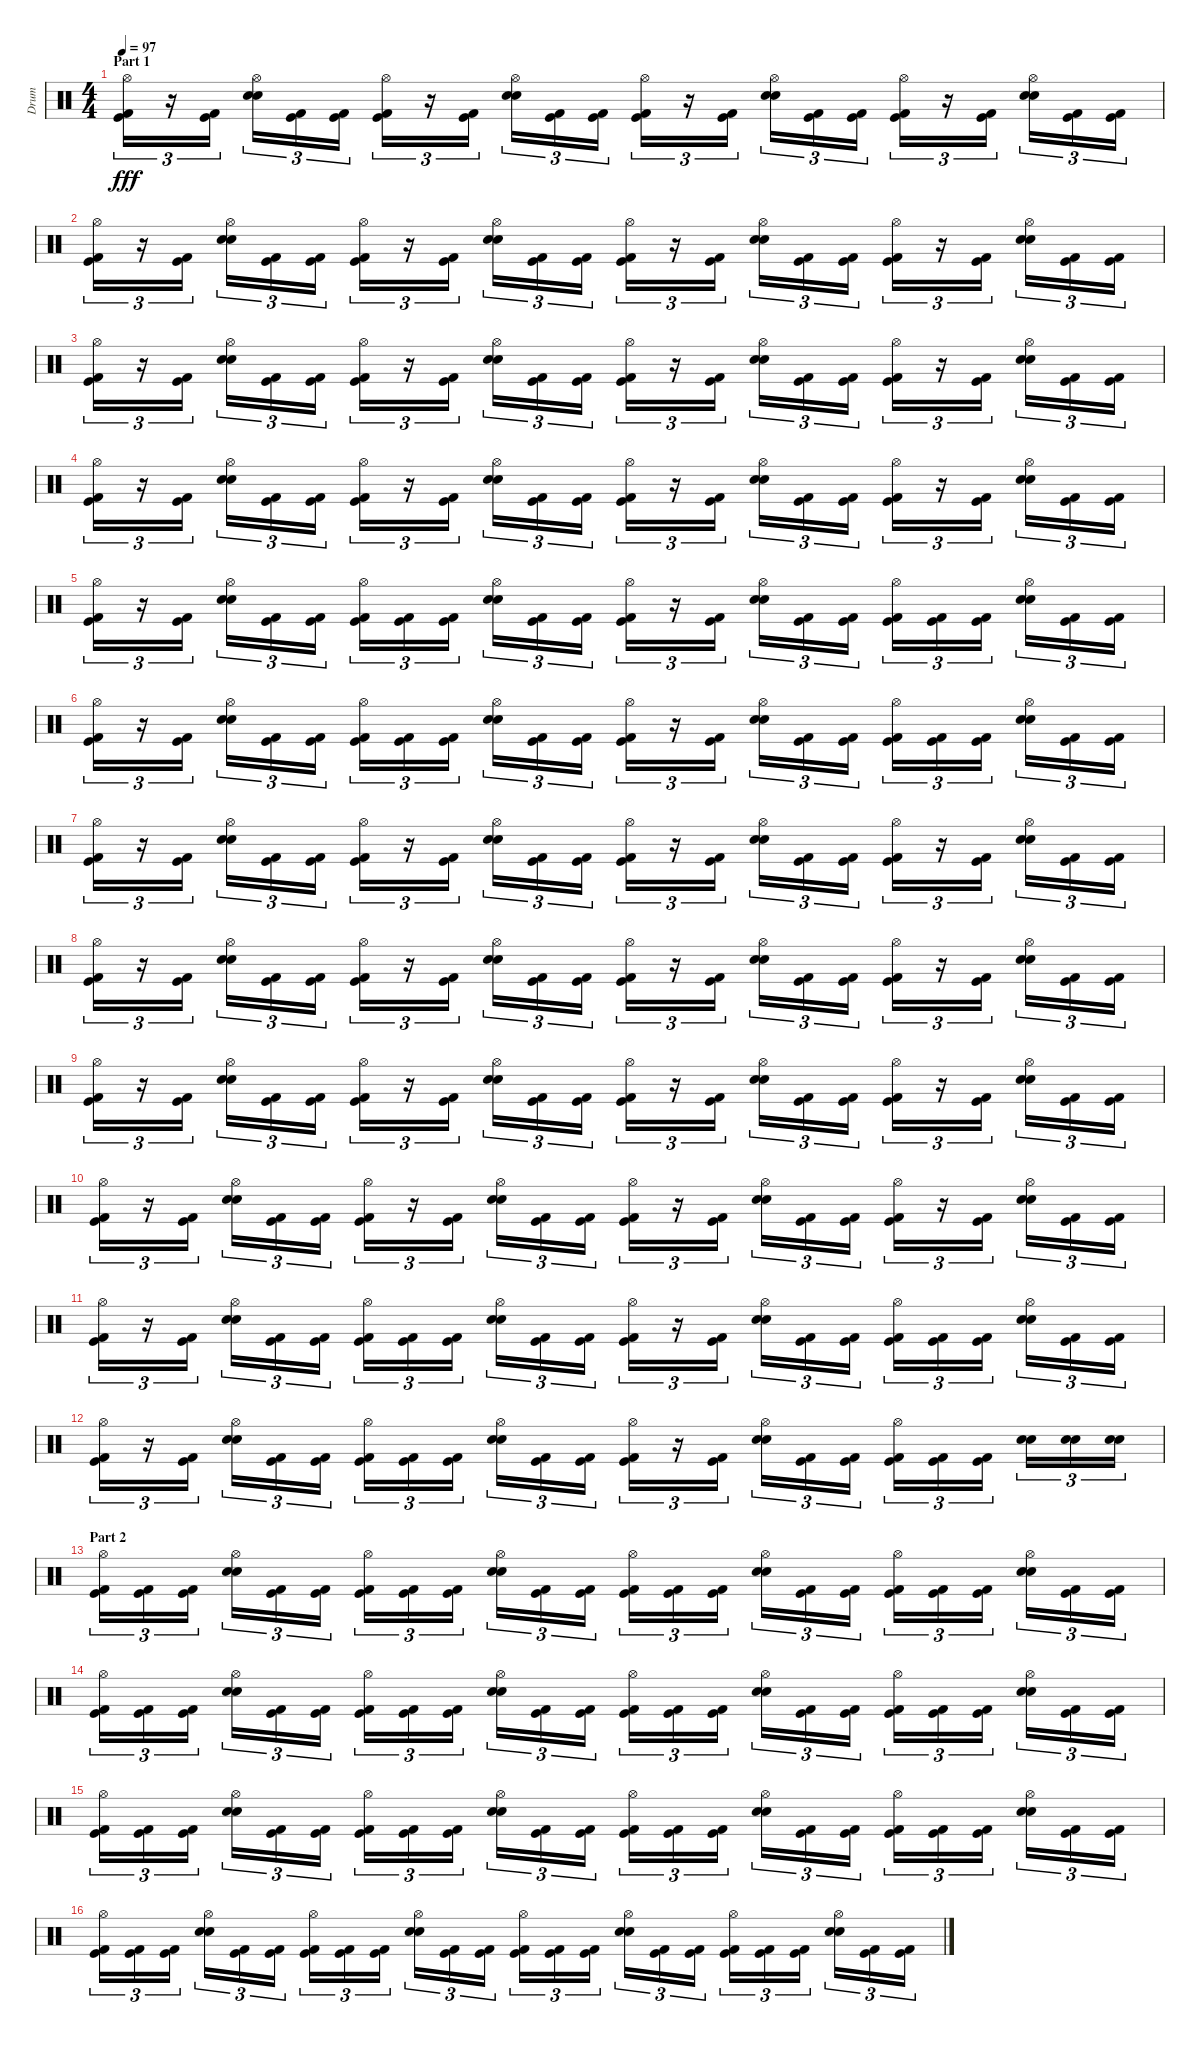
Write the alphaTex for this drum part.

\track ("Drum" "Drum") {instrument percussion}
\staff {score}
\articulation defaults
\ts (4 4)
\section ("" "Part 1")
\tempo 97
\clef neutral
\ks c
("Hi-Hat (open)" "Kick (hit)" "Kick (hit) 2").16{tu (3 2) dy fff} r.16{tu (3 2)} ("Kick (hit)" "Kick (hit) 2").16{tu (3 2)} ("Hi-Hat (open)" "Electric Snare (hit)" "Snare (hit) 2").16{tu (3 2)} ("Kick (hit)" "Kick (hit) 2").16{tu (3 2)} ("Kick (hit)" "Kick (hit) 2").16{tu (3 2)} ("Hi-Hat (open)" "Kick (hit)" "Kick (hit) 2").16{tu (3 2)} r.16{tu (3 2)} ("Kick (hit)" "Kick (hit) 2").16{tu (3 2)} ("Hi-Hat (open)" "Electric Snare (hit)" "Snare (hit) 2").16{tu (3 2)} ("Kick (hit)" "Kick (hit) 2").16{tu (3 2)} ("Kick (hit)" "Kick (hit) 2").16{tu (3 2)} ("Hi-Hat (open)" "Kick (hit)" "Kick (hit) 2").16{tu (3 2)} r.16{tu (3 2)} ("Kick (hit)" "Kick (hit) 2").16{tu (3 2)} ("Hi-Hat (open)" "Electric Snare (hit)" "Snare (hit) 2").16{tu (3 2)} ("Kick (hit)" "Kick (hit) 2").16{tu (3 2)} ("Kick (hit)" "Kick (hit) 2").16{tu (3 2)} ("Hi-Hat (open)" "Kick (hit)" "Kick (hit) 2").16{tu (3 2)} r.16{tu (3 2)} ("Kick (hit)" "Kick (hit) 2").16{tu (3 2)} ("Hi-Hat (open)" "Electric Snare (hit)" "Snare (hit) 2").16{tu (3 2)} ("Kick (hit)" "Kick (hit) 2").16{tu (3 2)} ("Kick (hit)" "Kick (hit) 2").16{tu (3 2)} |
("Hi-Hat (open)" "Kick (hit)" "Kick (hit) 2").16{tu (3 2)} r.16{tu (3 2)} ("Kick (hit)" "Kick (hit) 2").16{tu (3 2)} ("Hi-Hat (open)" "Electric Snare (hit)" "Snare (hit) 2").16{tu (3 2)} ("Kick (hit)" "Kick (hit) 2").16{tu (3 2)} ("Kick (hit)" "Kick (hit) 2").16{tu (3 2)} ("Hi-Hat (open)" "Kick (hit)" "Kick (hit) 2").16{tu (3 2)} r.16{tu (3 2)} ("Kick (hit)" "Kick (hit) 2").16{tu (3 2)} ("Hi-Hat (open)" "Electric Snare (hit)" "Snare (hit) 2").16{tu (3 2)} ("Kick (hit)" "Kick (hit) 2").16{tu (3 2)} ("Kick (hit)" "Kick (hit) 2").16{tu (3 2)} ("Hi-Hat (open)" "Kick (hit)" "Kick (hit) 2").16{tu (3 2)} r.16{tu (3 2)} ("Kick (hit)" "Kick (hit) 2").16{tu (3 2)} ("Hi-Hat (open)" "Electric Snare (hit)" "Snare (hit) 2").16{tu (3 2)} ("Kick (hit)" "Kick (hit) 2").16{tu (3 2)} ("Kick (hit)" "Kick (hit) 2").16{tu (3 2)} ("Hi-Hat (open)" "Kick (hit)" "Kick (hit) 2").16{tu (3 2)} r.16{tu (3 2)} ("Kick (hit)" "Kick (hit) 2").16{tu (3 2)} ("Hi-Hat (open)" "Electric Snare (hit)" "Snare (hit) 2").16{tu (3 2)} ("Kick (hit)" "Kick (hit) 2").16{tu (3 2)} ("Kick (hit)" "Kick (hit) 2").16{tu (3 2)} |
("Hi-Hat (open)" "Kick (hit)" "Kick (hit) 2").16{tu (3 2)} r.16{tu (3 2)} ("Kick (hit)" "Kick (hit) 2").16{tu (3 2)} ("Hi-Hat (open)" "Electric Snare (hit)" "Snare (hit) 2").16{tu (3 2)} ("Kick (hit)" "Kick (hit) 2").16{tu (3 2)} ("Kick (hit)" "Kick (hit) 2").16{tu (3 2)} ("Hi-Hat (open)" "Kick (hit)" "Kick (hit) 2").16{tu (3 2)} r.16{tu (3 2)} ("Kick (hit)" "Kick (hit) 2").16{tu (3 2)} ("Hi-Hat (open)" "Electric Snare (hit)" "Snare (hit) 2").16{tu (3 2)} ("Kick (hit)" "Kick (hit) 2").16{tu (3 2)} ("Kick (hit)" "Kick (hit) 2").16{tu (3 2)} ("Hi-Hat (open)" "Kick (hit)" "Kick (hit) 2").16{tu (3 2)} r.16{tu (3 2)} ("Kick (hit)" "Kick (hit) 2").16{tu (3 2)} ("Hi-Hat (open)" "Electric Snare (hit)" "Snare (hit) 2").16{tu (3 2)} ("Kick (hit)" "Kick (hit) 2").16{tu (3 2)} ("Kick (hit)" "Kick (hit) 2").16{tu (3 2)} ("Hi-Hat (open)" "Kick (hit)" "Kick (hit) 2").16{tu (3 2)} r.16{tu (3 2)} ("Kick (hit)" "Kick (hit) 2").16{tu (3 2)} ("Hi-Hat (open)" "Electric Snare (hit)" "Snare (hit) 2").16{tu (3 2)} ("Kick (hit)" "Kick (hit) 2").16{tu (3 2)} ("Kick (hit)" "Kick (hit) 2").16{tu (3 2)} |
("Hi-Hat (open)" "Kick (hit)" "Kick (hit) 2").16{tu (3 2)} r.16{tu (3 2)} ("Kick (hit)" "Kick (hit) 2").16{tu (3 2)} ("Hi-Hat (open)" "Electric Snare (hit)" "Snare (hit) 2").16{tu (3 2)} ("Kick (hit)" "Kick (hit) 2").16{tu (3 2)} ("Kick (hit)" "Kick (hit) 2").16{tu (3 2)} ("Hi-Hat (open)" "Kick (hit)" "Kick (hit) 2").16{tu (3 2)} r.16{tu (3 2)} ("Kick (hit)" "Kick (hit) 2").16{tu (3 2)} ("Hi-Hat (open)" "Electric Snare (hit)" "Snare (hit) 2").16{tu (3 2)} ("Kick (hit)" "Kick (hit) 2").16{tu (3 2)} ("Kick (hit)" "Kick (hit) 2").16{tu (3 2)} ("Hi-Hat (open)" "Kick (hit)" "Kick (hit) 2").16{tu (3 2)} r.16{tu (3 2)} ("Kick (hit)" "Kick (hit) 2").16{tu (3 2)} ("Hi-Hat (open)" "Electric Snare (hit)" "Snare (hit) 2").16{tu (3 2)} ("Kick (hit)" "Kick (hit) 2").16{tu (3 2)} ("Kick (hit)" "Kick (hit) 2").16{tu (3 2)} ("Hi-Hat (open)" "Kick (hit)" "Kick (hit) 2").16{tu (3 2)} r.16{tu (3 2)} ("Kick (hit)" "Kick (hit) 2").16{tu (3 2)} ("Hi-Hat (open)" "Electric Snare (hit)" "Snare (hit) 2").16{tu (3 2)} ("Kick (hit)" "Kick (hit) 2").16{tu (3 2)} ("Kick (hit)" "Kick (hit) 2").16{tu (3 2)} |
("Hi-Hat (open)" "Kick (hit)" "Kick (hit) 2").16{tu (3 2)} r.16{tu (3 2)} ("Kick (hit)" "Kick (hit) 2").16{tu (3 2)} ("Hi-Hat (open)" "Electric Snare (hit)" "Snare (hit) 2").16{tu (3 2)} ("Kick (hit)" "Kick (hit) 2").16{tu (3 2)} ("Kick (hit)" "Kick (hit) 2").16{tu (3 2)} ("Hi-Hat (open)" "Kick (hit)" "Kick (hit) 2").16{tu (3 2)} ("Kick (hit)" "Kick (hit) 2").16{tu (3 2)} ("Kick (hit)" "Kick (hit) 2").16{tu (3 2)} ("Hi-Hat (open)" "Electric Snare (hit)" "Snare (hit) 2").16{tu (3 2)} ("Kick (hit)" "Kick (hit) 2").16{tu (3 2)} ("Kick (hit)" "Kick (hit) 2").16{tu (3 2)} ("Hi-Hat (open)" "Kick (hit)" "Kick (hit) 2").16{tu (3 2)} r.16{tu (3 2)} ("Kick (hit)" "Kick (hit) 2").16{tu (3 2)} ("Hi-Hat (open)" "Electric Snare (hit)" "Snare (hit) 2").16{tu (3 2)} ("Kick (hit)" "Kick (hit) 2").16{tu (3 2)} ("Kick (hit)" "Kick (hit) 2").16{tu (3 2)} ("Hi-Hat (open)" "Kick (hit)" "Kick (hit) 2").16{tu (3 2)} ("Kick (hit)" "Kick (hit) 2").16{tu (3 2)} ("Kick (hit)" "Kick (hit) 2").16{tu (3 2)} ("Hi-Hat (open)" "Electric Snare (hit)" "Snare (hit) 2").16{tu (3 2)} ("Kick (hit)" "Kick (hit) 2").16{tu (3 2)} ("Kick (hit)" "Kick (hit) 2").16{tu (3 2)} |
("Hi-Hat (open)" "Kick (hit)" "Kick (hit) 2").16{tu (3 2)} r.16{tu (3 2)} ("Kick (hit)" "Kick (hit) 2").16{tu (3 2)} ("Hi-Hat (open)" "Electric Snare (hit)" "Snare (hit) 2").16{tu (3 2)} ("Kick (hit)" "Kick (hit) 2").16{tu (3 2)} ("Kick (hit)" "Kick (hit) 2").16{tu (3 2)} ("Hi-Hat (open)" "Kick (hit)" "Kick (hit) 2").16{tu (3 2)} ("Kick (hit)" "Kick (hit) 2").16{tu (3 2)} ("Kick (hit)" "Kick (hit) 2").16{tu (3 2)} ("Hi-Hat (open)" "Electric Snare (hit)" "Snare (hit) 2").16{tu (3 2)} ("Kick (hit)" "Kick (hit) 2").16{tu (3 2)} ("Kick (hit)" "Kick (hit) 2").16{tu (3 2)} ("Hi-Hat (open)" "Kick (hit)" "Kick (hit) 2").16{tu (3 2)} r.16{tu (3 2)} ("Kick (hit)" "Kick (hit) 2").16{tu (3 2)} ("Hi-Hat (open)" "Electric Snare (hit)" "Snare (hit) 2").16{tu (3 2)} ("Kick (hit)" "Kick (hit) 2").16{tu (3 2)} ("Kick (hit)" "Kick (hit) 2").16{tu (3 2)} ("Hi-Hat (open)" "Kick (hit)" "Kick (hit) 2").16{tu (3 2)} ("Kick (hit)" "Kick (hit) 2").16{tu (3 2)} ("Kick (hit)" "Kick (hit) 2").16{tu (3 2)} ("Hi-Hat (open)" "Electric Snare (hit)" "Snare (hit) 2").16{tu (3 2)} ("Kick (hit)" "Kick (hit) 2").16{tu (3 2)} ("Kick (hit)" "Kick (hit) 2").16{tu (3 2)} |
("Hi-Hat (open)" "Kick (hit)" "Kick (hit) 2").16{tu (3 2)} r.16{tu (3 2)} ("Kick (hit)" "Kick (hit) 2").16{tu (3 2)} ("Hi-Hat (open)" "Electric Snare (hit)" "Snare (hit) 2").16{tu (3 2)} ("Kick (hit)" "Kick (hit) 2").16{tu (3 2)} ("Kick (hit)" "Kick (hit) 2").16{tu (3 2)} ("Hi-Hat (open)" "Kick (hit)" "Kick (hit) 2").16{tu (3 2)} r.16{tu (3 2)} ("Kick (hit)" "Kick (hit) 2").16{tu (3 2)} ("Hi-Hat (open)" "Electric Snare (hit)" "Snare (hit) 2").16{tu (3 2)} ("Kick (hit)" "Kick (hit) 2").16{tu (3 2)} ("Kick (hit)" "Kick (hit) 2").16{tu (3 2)} ("Hi-Hat (open)" "Kick (hit)" "Kick (hit) 2").16{tu (3 2)} r.16{tu (3 2)} ("Kick (hit)" "Kick (hit) 2").16{tu (3 2)} ("Hi-Hat (open)" "Electric Snare (hit)" "Snare (hit) 2").16{tu (3 2)} ("Kick (hit)" "Kick (hit) 2").16{tu (3 2)} ("Kick (hit)" "Kick (hit) 2").16{tu (3 2)} ("Hi-Hat (open)" "Kick (hit)" "Kick (hit) 2").16{tu (3 2)} r.16{tu (3 2)} ("Kick (hit)" "Kick (hit) 2").16{tu (3 2)} ("Hi-Hat (open)" "Electric Snare (hit)" "Snare (hit) 2").16{tu (3 2)} ("Kick (hit)" "Kick (hit) 2").16{tu (3 2)} ("Kick (hit)" "Kick (hit) 2").16{tu (3 2)} |
("Hi-Hat (open)" "Kick (hit)" "Kick (hit) 2").16{tu (3 2)} r.16{tu (3 2)} ("Kick (hit)" "Kick (hit) 2").16{tu (3 2)} ("Hi-Hat (open)" "Electric Snare (hit)" "Snare (hit) 2").16{tu (3 2)} ("Kick (hit)" "Kick (hit) 2").16{tu (3 2)} ("Kick (hit)" "Kick (hit) 2").16{tu (3 2)} ("Hi-Hat (open)" "Kick (hit)" "Kick (hit) 2").16{tu (3 2)} r.16{tu (3 2)} ("Kick (hit)" "Kick (hit) 2").16{tu (3 2)} ("Hi-Hat (open)" "Electric Snare (hit)" "Snare (hit) 2").16{tu (3 2)} ("Kick (hit)" "Kick (hit) 2").16{tu (3 2)} ("Kick (hit)" "Kick (hit) 2").16{tu (3 2)} ("Hi-Hat (open)" "Kick (hit)" "Kick (hit) 2").16{tu (3 2)} r.16{tu (3 2)} ("Kick (hit)" "Kick (hit) 2").16{tu (3 2)} ("Hi-Hat (open)" "Electric Snare (hit)" "Snare (hit) 2").16{tu (3 2)} ("Kick (hit)" "Kick (hit) 2").16{tu (3 2)} ("Kick (hit)" "Kick (hit) 2").16{tu (3 2)} ("Hi-Hat (open)" "Kick (hit)" "Kick (hit) 2").16{tu (3 2)} r.16{tu (3 2)} ("Kick (hit)" "Kick (hit) 2").16{tu (3 2)} ("Hi-Hat (open)" "Electric Snare (hit)" "Snare (hit) 2").16{tu (3 2)} ("Kick (hit)" "Kick (hit) 2").16{tu (3 2)} ("Kick (hit)" "Kick (hit) 2").16{tu (3 2)} |
("Hi-Hat (open)" "Kick (hit)" "Kick (hit) 2").16{tu (3 2)} r.16{tu (3 2)} ("Kick (hit)" "Kick (hit) 2").16{tu (3 2)} ("Hi-Hat (open)" "Electric Snare (hit)" "Snare (hit) 2").16{tu (3 2)} ("Kick (hit)" "Kick (hit) 2").16{tu (3 2)} ("Kick (hit)" "Kick (hit) 2").16{tu (3 2)} ("Hi-Hat (open)" "Kick (hit)" "Kick (hit) 2").16{tu (3 2)} r.16{tu (3 2)} ("Kick (hit)" "Kick (hit) 2").16{tu (3 2)} ("Hi-Hat (open)" "Electric Snare (hit)" "Snare (hit) 2").16{tu (3 2)} ("Kick (hit)" "Kick (hit) 2").16{tu (3 2)} ("Kick (hit)" "Kick (hit) 2").16{tu (3 2)} ("Hi-Hat (open)" "Kick (hit)" "Kick (hit) 2").16{tu (3 2)} r.16{tu (3 2)} ("Kick (hit)" "Kick (hit) 2").16{tu (3 2)} ("Hi-Hat (open)" "Electric Snare (hit)" "Snare (hit) 2").16{tu (3 2)} ("Kick (hit)" "Kick (hit) 2").16{tu (3 2)} ("Kick (hit)" "Kick (hit) 2").16{tu (3 2)} ("Hi-Hat (open)" "Kick (hit)" "Kick (hit) 2").16{tu (3 2)} r.16{tu (3 2)} ("Kick (hit)" "Kick (hit) 2").16{tu (3 2)} ("Hi-Hat (open)" "Electric Snare (hit)" "Snare (hit) 2").16{tu (3 2)} ("Kick (hit)" "Kick (hit) 2").16{tu (3 2)} ("Kick (hit)" "Kick (hit) 2").16{tu (3 2)} |
("Hi-Hat (open)" "Kick (hit)" "Kick (hit) 2").16{tu (3 2)} r.16{tu (3 2)} ("Kick (hit)" "Kick (hit) 2").16{tu (3 2)} ("Hi-Hat (open)" "Electric Snare (hit)" "Snare (hit) 2").16{tu (3 2)} ("Kick (hit)" "Kick (hit) 2").16{tu (3 2)} ("Kick (hit)" "Kick (hit) 2").16{tu (3 2)} ("Hi-Hat (open)" "Kick (hit)" "Kick (hit) 2").16{tu (3 2)} r.16{tu (3 2)} ("Kick (hit)" "Kick (hit) 2").16{tu (3 2)} ("Hi-Hat (open)" "Electric Snare (hit)" "Snare (hit) 2").16{tu (3 2)} ("Kick (hit)" "Kick (hit) 2").16{tu (3 2)} ("Kick (hit)" "Kick (hit) 2").16{tu (3 2)} ("Hi-Hat (open)" "Kick (hit)" "Kick (hit) 2").16{tu (3 2)} r.16{tu (3 2)} ("Kick (hit)" "Kick (hit) 2").16{tu (3 2)} ("Hi-Hat (open)" "Electric Snare (hit)" "Snare (hit) 2").16{tu (3 2)} ("Kick (hit)" "Kick (hit) 2").16{tu (3 2)} ("Kick (hit)" "Kick (hit) 2").16{tu (3 2)} ("Hi-Hat (open)" "Kick (hit)" "Kick (hit) 2").16{tu (3 2)} r.16{tu (3 2)} ("Kick (hit)" "Kick (hit) 2").16{tu (3 2)} ("Hi-Hat (open)" "Electric Snare (hit)" "Snare (hit) 2").16{tu (3 2)} ("Kick (hit)" "Kick (hit) 2").16{tu (3 2)} ("Kick (hit)" "Kick (hit) 2").16{tu (3 2)} |
("Hi-Hat (open)" "Kick (hit)" "Kick (hit) 2").16{tu (3 2)} r.16{tu (3 2)} ("Kick (hit)" "Kick (hit) 2").16{tu (3 2)} ("Hi-Hat (open)" "Electric Snare (hit)" "Snare (hit) 2").16{tu (3 2)} ("Kick (hit)" "Kick (hit) 2").16{tu (3 2)} ("Kick (hit)" "Kick (hit) 2").16{tu (3 2)} ("Hi-Hat (open)" "Kick (hit)" "Kick (hit) 2").16{tu (3 2)} ("Kick (hit)" "Kick (hit) 2").16{tu (3 2)} ("Kick (hit)" "Kick (hit) 2").16{tu (3 2)} ("Hi-Hat (open)" "Electric Snare (hit)" "Snare (hit) 2").16{tu (3 2)} ("Kick (hit)" "Kick (hit) 2").16{tu (3 2)} ("Kick (hit)" "Kick (hit) 2").16{tu (3 2)} ("Hi-Hat (open)" "Kick (hit)" "Kick (hit) 2").16{tu (3 2)} r.16{tu (3 2)} ("Kick (hit)" "Kick (hit) 2").16{tu (3 2)} ("Hi-Hat (open)" "Electric Snare (hit)" "Snare (hit) 2").16{tu (3 2)} ("Kick (hit)" "Kick (hit) 2").16{tu (3 2)} ("Kick (hit)" "Kick (hit) 2").16{tu (3 2)} ("Hi-Hat (open)" "Kick (hit)" "Kick (hit) 2").16{tu (3 2)} ("Kick (hit)" "Kick (hit) 2").16{tu (3 2)} ("Kick (hit)" "Kick (hit) 2").16{tu (3 2)} ("Hi-Hat (open)" "Electric Snare (hit)" "Snare (hit) 2").16{tu (3 2)} ("Kick (hit)" "Kick (hit) 2").16{tu (3 2)} ("Kick (hit)" "Kick (hit) 2").16{tu (3 2)} |
("Hi-Hat (open)" "Kick (hit)" "Kick (hit) 2").16{tu (3 2)} r.16{tu (3 2)} ("Kick (hit)" "Kick (hit) 2").16{tu (3 2)} ("Hi-Hat (open)" "Electric Snare (hit)" "Snare (hit) 2").16{tu (3 2)} ("Kick (hit)" "Kick (hit) 2").16{tu (3 2)} ("Kick (hit)" "Kick (hit) 2").16{tu (3 2)} ("Hi-Hat (open)" "Kick (hit)" "Kick (hit) 2").16{tu (3 2)} ("Kick (hit)" "Kick (hit) 2").16{tu (3 2)} ("Kick (hit)" "Kick (hit) 2").16{tu (3 2)} ("Hi-Hat (open)" "Electric Snare (hit)" "Snare (hit) 2").16{tu (3 2)} ("Kick (hit)" "Kick (hit) 2").16{tu (3 2)} ("Kick (hit)" "Kick (hit) 2").16{tu (3 2)} ("Hi-Hat (open)" "Kick (hit)" "Kick (hit) 2").16{tu (3 2)} r.16{tu (3 2)} ("Kick (hit)" "Kick (hit) 2").16{tu (3 2)} ("Hi-Hat (open)" "Electric Snare (hit)" "Snare (hit) 2").16{tu (3 2)} ("Kick (hit)" "Kick (hit) 2").16{tu (3 2)} ("Kick (hit)" "Kick (hit) 2").16{tu (3 2)} ("Hi-Hat (open)" "Kick (hit)" "Kick (hit) 2").16{tu (3 2)} ("Kick (hit)" "Kick (hit) 2").16{tu (3 2)} ("Kick (hit)" "Kick (hit) 2").16{tu (3 2)} ("Electric Snare (hit)" "Snare (hit) 2").16{tu (3 2)} ("Electric Snare (hit)" "Snare (hit) 2").16{tu (3 2)} ("Electric Snare (hit)" "Snare (hit) 2").16{tu (3 2)} |
\section ("" "Part 2")
("Hi-Hat (open)" "Kick (hit)" "Kick (hit) 2").16{tu (3 2)} ("Kick (hit)" "Kick (hit) 2").16{tu (3 2)} ("Kick (hit)" "Kick (hit) 2").16{tu (3 2)} ("Hi-Hat (open)" "Electric Snare (hit)" "Snare (hit) 2").16{tu (3 2)} ("Kick (hit)" "Kick (hit) 2").16{tu (3 2)} ("Kick (hit)" "Kick (hit) 2").16{tu (3 2)} ("Hi-Hat (open)" "Kick (hit)" "Kick (hit) 2").16{tu (3 2)} ("Kick (hit)" "Kick (hit) 2").16{tu (3 2)} ("Kick (hit)" "Kick (hit) 2").16{tu (3 2)} ("Hi-Hat (open)" "Electric Snare (hit)" "Snare (hit) 2").16{tu (3 2)} ("Kick (hit)" "Kick (hit) 2").16{tu (3 2)} ("Kick (hit)" "Kick (hit) 2").16{tu (3 2)} ("Hi-Hat (open)" "Kick (hit)" "Kick (hit) 2").16{tu (3 2)} ("Kick (hit)" "Kick (hit) 2").16{tu (3 2)} ("Kick (hit)" "Kick (hit) 2").16{tu (3 2)} ("Hi-Hat (open)" "Electric Snare (hit)" "Snare (hit) 2").16{tu (3 2)} ("Kick (hit)" "Kick (hit) 2").16{tu (3 2)} ("Kick (hit)" "Kick (hit) 2").16{tu (3 2)} ("Hi-Hat (open)" "Kick (hit)" "Kick (hit) 2").16{tu (3 2)} ("Kick (hit)" "Kick (hit) 2").16{tu (3 2)} ("Kick (hit)" "Kick (hit) 2").16{tu (3 2)} ("Hi-Hat (open)" "Electric Snare (hit)" "Snare (hit) 2").16{tu (3 2)} ("Kick (hit)" "Kick (hit) 2").16{tu (3 2)} ("Kick (hit)" "Kick (hit) 2").16{tu (3 2)} |
("Hi-Hat (open)" "Kick (hit)" "Kick (hit) 2").16{tu (3 2)} ("Kick (hit)" "Kick (hit) 2").16{tu (3 2)} ("Kick (hit)" "Kick (hit) 2").16{tu (3 2)} ("Hi-Hat (open)" "Electric Snare (hit)" "Snare (hit) 2").16{tu (3 2)} ("Kick (hit)" "Kick (hit) 2").16{tu (3 2)} ("Kick (hit)" "Kick (hit) 2").16{tu (3 2)} ("Hi-Hat (open)" "Kick (hit)" "Kick (hit) 2").16{tu (3 2)} ("Kick (hit)" "Kick (hit) 2").16{tu (3 2)} ("Kick (hit)" "Kick (hit) 2").16{tu (3 2)} ("Hi-Hat (open)" "Electric Snare (hit)" "Snare (hit) 2").16{tu (3 2)} ("Kick (hit)" "Kick (hit) 2").16{tu (3 2)} ("Kick (hit)" "Kick (hit) 2").16{tu (3 2)} ("Hi-Hat (open)" "Kick (hit)" "Kick (hit) 2").16{tu (3 2)} ("Kick (hit)" "Kick (hit) 2").16{tu (3 2)} ("Kick (hit)" "Kick (hit) 2").16{tu (3 2)} ("Hi-Hat (open)" "Electric Snare (hit)" "Snare (hit) 2").16{tu (3 2)} ("Kick (hit)" "Kick (hit) 2").16{tu (3 2)} ("Kick (hit)" "Kick (hit) 2").16{tu (3 2)} ("Hi-Hat (open)" "Kick (hit)" "Kick (hit) 2").16{tu (3 2)} ("Kick (hit)" "Kick (hit) 2").16{tu (3 2)} ("Kick (hit)" "Kick (hit) 2").16{tu (3 2)} ("Hi-Hat (open)" "Electric Snare (hit)" "Snare (hit) 2").16{tu (3 2)} ("Kick (hit)" "Kick (hit) 2").16{tu (3 2)} ("Kick (hit)" "Kick (hit) 2").16{tu (3 2)} |
("Hi-Hat (open)" "Kick (hit)" "Kick (hit) 2").16{tu (3 2)} ("Kick (hit)" "Kick (hit) 2").16{tu (3 2)} ("Kick (hit)" "Kick (hit) 2").16{tu (3 2)} ("Hi-Hat (open)" "Electric Snare (hit)" "Snare (hit) 2").16{tu (3 2)} ("Kick (hit)" "Kick (hit) 2").16{tu (3 2)} ("Kick (hit)" "Kick (hit) 2").16{tu (3 2)} ("Hi-Hat (open)" "Kick (hit)" "Kick (hit) 2").16{tu (3 2)} ("Kick (hit)" "Kick (hit) 2").16{tu (3 2)} ("Kick (hit)" "Kick (hit) 2").16{tu (3 2)} ("Hi-Hat (open)" "Electric Snare (hit)" "Snare (hit) 2").16{tu (3 2)} ("Kick (hit)" "Kick (hit) 2").16{tu (3 2)} ("Kick (hit)" "Kick (hit) 2").16{tu (3 2)} ("Hi-Hat (open)" "Kick (hit)" "Kick (hit) 2").16{tu (3 2)} ("Kick (hit)" "Kick (hit) 2").16{tu (3 2)} ("Kick (hit)" "Kick (hit) 2").16{tu (3 2)} ("Hi-Hat (open)" "Electric Snare (hit)" "Snare (hit) 2").16{tu (3 2)} ("Kick (hit)" "Kick (hit) 2").16{tu (3 2)} ("Kick (hit)" "Kick (hit) 2").16{tu (3 2)} ("Hi-Hat (open)" "Kick (hit)" "Kick (hit) 2").16{tu (3 2)} ("Kick (hit)" "Kick (hit) 2").16{tu (3 2)} ("Kick (hit)" "Kick (hit) 2").16{tu (3 2)} ("Hi-Hat (open)" "Electric Snare (hit)" "Snare (hit) 2").16{tu (3 2)} ("Kick (hit)" "Kick (hit) 2").16{tu (3 2)} ("Kick (hit)" "Kick (hit) 2").16{tu (3 2)} |
("Hi-Hat (open)" "Kick (hit)" "Kick (hit) 2").16{tu (3 2)} ("Kick (hit)" "Kick (hit) 2").16{tu (3 2)} ("Kick (hit)" "Kick (hit) 2").16{tu (3 2)} ("Hi-Hat (open)" "Electric Snare (hit)" "Snare (hit) 2").16{tu (3 2)} ("Kick (hit)" "Kick (hit) 2").16{tu (3 2)} ("Kick (hit)" "Kick (hit) 2").16{tu (3 2)} ("Hi-Hat (open)" "Kick (hit)" "Kick (hit) 2").16{tu (3 2)} ("Kick (hit)" "Kick (hit) 2").16{tu (3 2)} ("Kick (hit)" "Kick (hit) 2").16{tu (3 2)} ("Hi-Hat (open)" "Electric Snare (hit)" "Snare (hit) 2").16{tu (3 2)} ("Kick (hit)" "Kick (hit) 2").16{tu (3 2)} ("Kick (hit)" "Kick (hit) 2").16{tu (3 2)} ("Hi-Hat (open)" "Kick (hit)" "Kick (hit) 2").16{tu (3 2)} ("Kick (hit)" "Kick (hit) 2").16{tu (3 2)} ("Kick (hit)" "Kick (hit) 2").16{tu (3 2)} ("Hi-Hat (open)" "Electric Snare (hit)" "Snare (hit) 2").16{tu (3 2)} ("Kick (hit)" "Kick (hit) 2").16{tu (3 2)} ("Kick (hit)" "Kick (hit) 2").16{tu (3 2)} ("Hi-Hat (open)" "Kick (hit)" "Kick (hit) 2").16{tu (3 2)} ("Kick (hit)" "Kick (hit) 2").16{tu (3 2)} ("Kick (hit)" "Kick (hit) 2").16{tu (3 2)} ("Hi-Hat (open)" "Electric Snare (hit)" "Snare (hit) 2").16{tu (3 2)} ("Kick (hit)" "Kick (hit) 2").16{tu (3 2)} ("Kick (hit)" "Kick (hit) 2").16{tu (3 2)}
